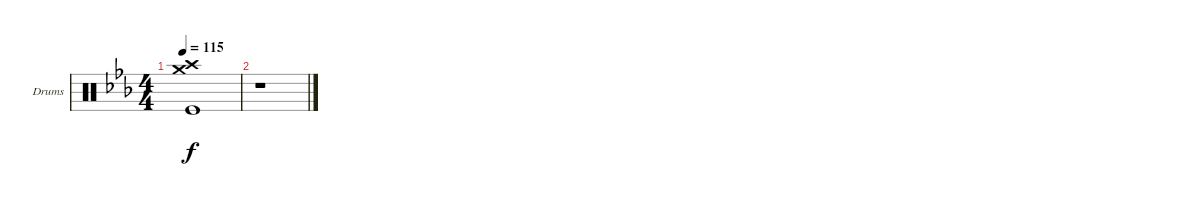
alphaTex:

\bracketExtendMode groupsimilarinstruments
\firstSystemTrackNameOrientation horizontal
\otherSystemsTrackNameOrientation horizontal
\track ("Drumkit" "Drums") {instrument percussion}
\staff {score}
\articulation defaults
\ts (4 4)
\tempo 115
\clef neutral
\ks cminor
("Crash medium (hit)" "Crash high (hit)" "Kick (hit)").1{dy f} |
r.1
